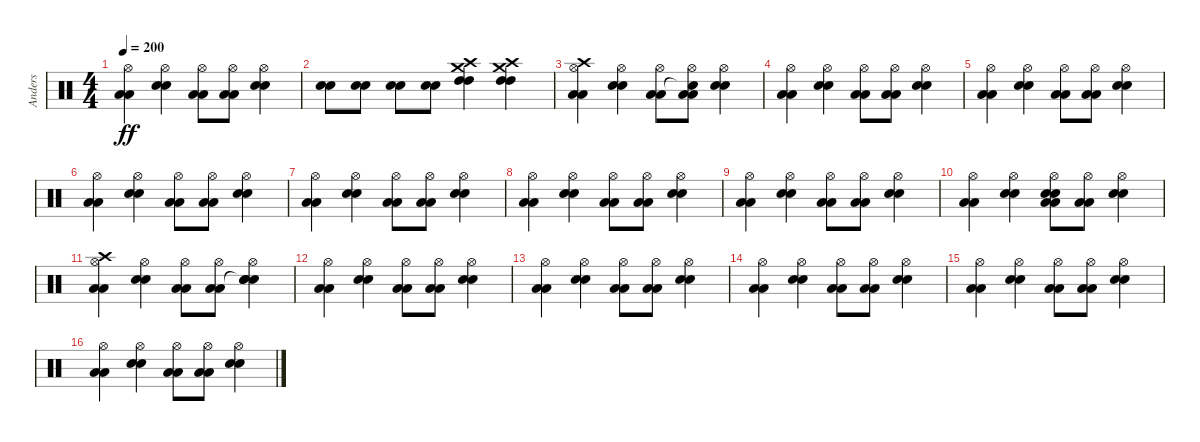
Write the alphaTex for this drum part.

\track ("Anders" "Anders") {instrument percussion}
\staff {score}
\articulation defaults
\ts (4 4)
\tempo 200
\clef neutral
\ks c
("Hi-Hat (open)" "Low Floor Tom (hit)" "Low Floor Tom (hit)").4{dy ff} ("Hi-Hat (open)" "Electric Snare (hit)" "Electric Snare (hit)").4 ("Hi-Hat (open)" "Low Floor Tom (hit)" "Low Floor Tom (hit)").8 ("Hi-Hat (open)" "Low Floor Tom (hit)" "Low Floor Tom (hit)").8 ("Hi-Hat (open)" "Electric Snare (hit)" "Electric Snare (hit)").4 |
("Electric Snare (hit)" "Electric Snare (hit)").8 ("Electric Snare (hit)" "Electric Snare (hit)").8 ("Electric Snare (hit)" "Electric Snare (hit)").8 ("Electric Snare (hit)" "Electric Snare (hit)").8 ("Crash high (hit)" "Crash medium (hit)" "High Tom (hit)" "High Tom (hit)").4 ("Crash high (hit)" "Crash medium (hit)" "High Tom (hit)" "High Tom (hit)").4 |
("Hi-Hat (open)" "Crash high (hit)" "Low Floor Tom (hit)" "Low Floor Tom (hit)").4 ("Hi-Hat (open)" "Electric Snare (hit)" "Electric Snare (hit)").4 ("Hi-Hat (open)" "Low Floor Tom (hit)" "Low Floor Tom (hit)").8 ("Hi-Hat (open)" "Snare (hit)"{t} "Low Floor Tom (hit)" "Low Floor Tom (hit)").8 ("Hi-Hat (open)" "Electric Snare (hit)" "Electric Snare (hit)").4 |
("Hi-Hat (open)" "Low Floor Tom (hit)" "Low Floor Tom (hit)").4 ("Hi-Hat (open)" "Electric Snare (hit)" "Electric Snare (hit)").4 ("Hi-Hat (open)" "Low Floor Tom (hit)" "Low Floor Tom (hit)").8 ("Hi-Hat (open)" "Low Floor Tom (hit)" "Low Floor Tom (hit)").8 ("Hi-Hat (open)" "Electric Snare (hit)" "Electric Snare (hit)").4 |
("Hi-Hat (open)" "Low Floor Tom (hit)" "Low Floor Tom (hit)").4 ("Hi-Hat (open)" "Electric Snare (hit)" "Electric Snare (hit)").4 ("Hi-Hat (open)" "Low Floor Tom (hit)" "Low Floor Tom (hit)").8 ("Hi-Hat (open)" "Low Floor Tom (hit)" "Low Floor Tom (hit)").8 ("Hi-Hat (open)" "Electric Snare (hit)" "Electric Snare (hit)").4 |
("Hi-Hat (open)" "Low Floor Tom (hit)" "Low Floor Tom (hit)").4 ("Hi-Hat (open)" "Electric Snare (hit)" "Electric Snare (hit)").4 ("Hi-Hat (open)" "Low Floor Tom (hit)" "Low Floor Tom (hit)").8 ("Hi-Hat (open)" "Low Floor Tom (hit)" "Low Floor Tom (hit)").8 ("Hi-Hat (open)" "Electric Snare (hit)" "Electric Snare (hit)").4 |
("Hi-Hat (open)" "Low Floor Tom (hit)" "Low Floor Tom (hit)").4 ("Hi-Hat (open)" "Electric Snare (hit)" "Electric Snare (hit)").4 ("Hi-Hat (open)" "Low Floor Tom (hit)" "Low Floor Tom (hit)").8 ("Hi-Hat (open)" "Low Floor Tom (hit)" "Low Floor Tom (hit)").8 ("Hi-Hat (open)" "Electric Snare (hit)" "Electric Snare (hit)").4 |
("Hi-Hat (open)" "Low Floor Tom (hit)" "Low Floor Tom (hit)").4 ("Hi-Hat (open)" "Electric Snare (hit)" "Electric Snare (hit)").4 ("Hi-Hat (open)" "Low Floor Tom (hit)" "Low Floor Tom (hit)").8 ("Hi-Hat (open)" "Low Floor Tom (hit)" "Low Floor Tom (hit)").8 ("Hi-Hat (open)" "Electric Snare (hit)" "Electric Snare (hit)").4 |
("Hi-Hat (open)" "Low Floor Tom (hit)" "Low Floor Tom (hit)").4 ("Hi-Hat (open)" "Electric Snare (hit)" "Electric Snare (hit)").4 ("Hi-Hat (open)" "Low Floor Tom (hit)" "Low Floor Tom (hit)").8 ("Hi-Hat (open)" "Low Floor Tom (hit)" "Low Floor Tom (hit)").8 ("Hi-Hat (open)" "Electric Snare (hit)" "Electric Snare (hit)").4 |
("Hi-Hat (open)" "Low Floor Tom (hit)" "Low Floor Tom (hit)").4 ("Hi-Hat (open)" "Electric Snare (hit)" "Electric Snare (hit)").4 ("Hi-Hat (open)" "Electric Snare (hit)" "Electric Snare (hit)" "Low Floor Tom (hit)" "Low Floor Tom (hit)").8 ("Hi-Hat (open)" "Low Floor Tom (hit)" "Low Floor Tom (hit)").8 ("Hi-Hat (open)" "Electric Snare (hit)" "Electric Snare (hit)").4 |
("Hi-Hat (open)" "Crash high (hit)" "Low Floor Tom (hit)" "Low Floor Tom (hit)").4 ("Hi-Hat (open)" "Electric Snare (hit)" "Electric Snare (hit)").4 ("Hi-Hat (open)" "Low Floor Tom (hit)" "Low Floor Tom (hit)").8 ("Hi-Hat (open)" "Low Floor Tom (hit)" "Low Floor Tom (hit)").8 ("Hi-Hat (open)" "Snare (hit)"{t} "Electric Snare (hit)" "Electric Snare (hit)").4 |
("Hi-Hat (open)" "Low Floor Tom (hit)" "Low Floor Tom (hit)").4 ("Hi-Hat (open)" "Electric Snare (hit)" "Electric Snare (hit)").4 ("Hi-Hat (open)" "Low Floor Tom (hit)" "Low Floor Tom (hit)").8 ("Hi-Hat (open)" "Low Floor Tom (hit)" "Low Floor Tom (hit)").8 ("Hi-Hat (open)" "Electric Snare (hit)" "Electric Snare (hit)").4 |
("Hi-Hat (open)" "Low Floor Tom (hit)" "Low Floor Tom (hit)").4 ("Hi-Hat (open)" "Electric Snare (hit)" "Electric Snare (hit)").4 ("Hi-Hat (open)" "Low Floor Tom (hit)" "Low Floor Tom (hit)").8 ("Hi-Hat (open)" "Low Floor Tom (hit)" "Low Floor Tom (hit)").8 ("Hi-Hat (open)" "Electric Snare (hit)" "Electric Snare (hit)").4 |
("Hi-Hat (open)" "Low Floor Tom (hit)" "Low Floor Tom (hit)").4 ("Hi-Hat (open)" "Electric Snare (hit)" "Electric Snare (hit)").4 ("Hi-Hat (open)" "Low Floor Tom (hit)" "Low Floor Tom (hit)").8 ("Hi-Hat (open)" "Low Floor Tom (hit)" "Low Floor Tom (hit)").8 ("Hi-Hat (open)" "Electric Snare (hit)" "Electric Snare (hit)").4 |
("Hi-Hat (open)" "Low Floor Tom (hit)" "Low Floor Tom (hit)").4 ("Hi-Hat (open)" "Electric Snare (hit)" "Electric Snare (hit)").4 ("Hi-Hat (open)" "Low Floor Tom (hit)" "Low Floor Tom (hit)").8 ("Hi-Hat (open)" "Low Floor Tom (hit)" "Low Floor Tom (hit)").8 ("Hi-Hat (open)" "Electric Snare (hit)" "Electric Snare (hit)").4 |
("Hi-Hat (open)" "Low Floor Tom (hit)" "Low Floor Tom (hit)").4 ("Hi-Hat (open)" "Electric Snare (hit)" "Electric Snare (hit)").4 ("Hi-Hat (open)" "Low Floor Tom (hit)" "Low Floor Tom (hit)").8 ("Hi-Hat (open)" "Low Floor Tom (hit)" "Low Floor Tom (hit)").8 ("Hi-Hat (open)" "Electric Snare (hit)" "Electric Snare (hit)").4
